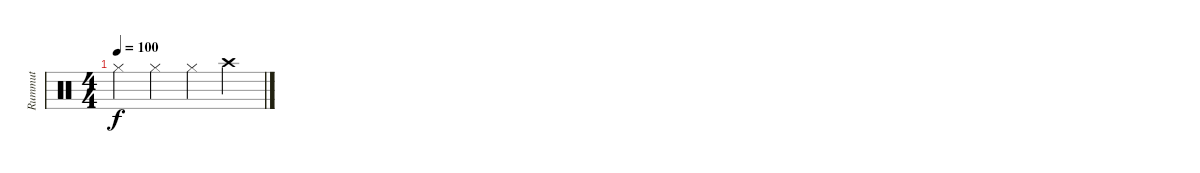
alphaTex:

\track ("Rummut" "Rummut") {instrument percussion}
\staff {score}
\articulation defaults
\ts (4 4)
\tempo 100
\clef neutral
\ks c "Hi-Hat (closed)".4{dy f} "Hi-Hat (closed)".4 "Hi-Hat (closed)".4 "Crash high (hit)".4
